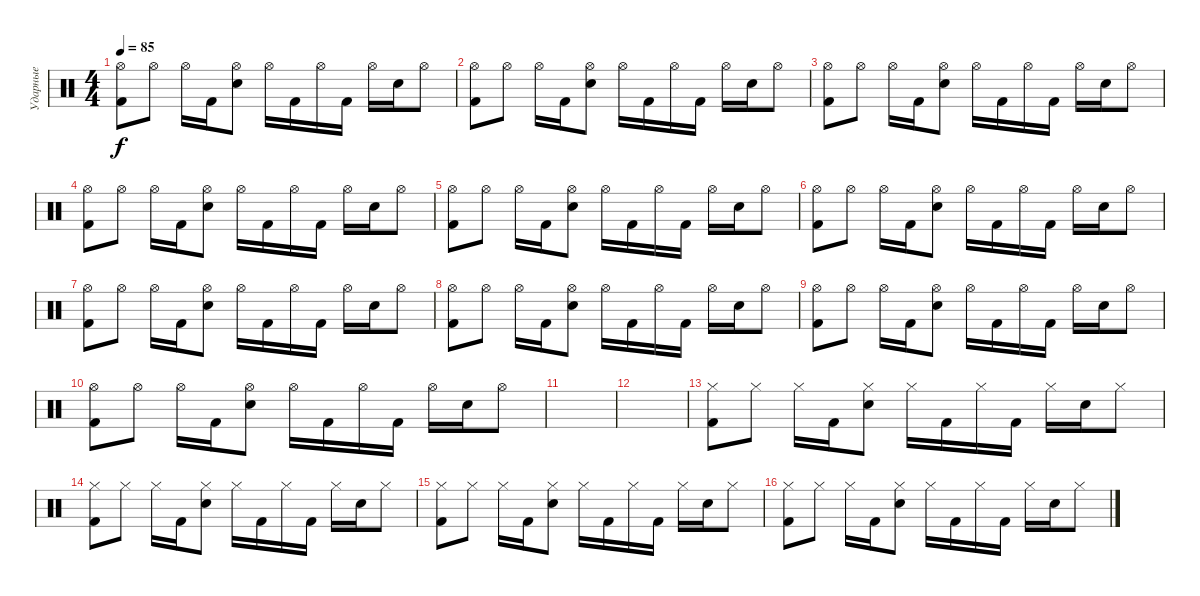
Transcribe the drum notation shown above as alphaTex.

\track ("Ударные" "Ударные") {instrument percussion}
\staff {score}
\articulation defaults
\ts (4 4)
\tempo 85
\clef neutral
\ks c
("Hi-Hat (open)" "Kick (hit) 2").8{dy f} "Hi-Hat (open)".8 "Hi-Hat (open)".16 "Kick (hit) 2".16 ("Hi-Hat (open)" "Electric Snare (hit)").8 "Hi-Hat (open)".16 "Kick (hit) 2".16 "Hi-Hat (open)".16 "Kick (hit) 2".16 "Hi-Hat (open)".16 "Electric Snare (hit)".16 "Hi-Hat (open)".8 |
("Hi-Hat (open)" "Kick (hit) 2").8 "Hi-Hat (open)".8 "Hi-Hat (open)".16 "Kick (hit) 2".16 ("Hi-Hat (open)" "Electric Snare (hit)").8 "Hi-Hat (open)".16 "Kick (hit) 2".16 "Hi-Hat (open)".16 "Kick (hit) 2".16 "Hi-Hat (open)".16 "Electric Snare (hit)".16 "Hi-Hat (open)".8 |
("Hi-Hat (open)" "Kick (hit) 2").8 "Hi-Hat (open)".8 "Hi-Hat (open)".16 "Kick (hit) 2".16 ("Hi-Hat (open)" "Electric Snare (hit)").8 "Hi-Hat (open)".16 "Kick (hit) 2".16 "Hi-Hat (open)".16 "Kick (hit) 2".16 "Hi-Hat (open)".16 "Electric Snare (hit)".16 "Hi-Hat (open)".8 |
("Hi-Hat (open)" "Kick (hit) 2").8 "Hi-Hat (open)".8 "Hi-Hat (open)".16 "Kick (hit) 2".16 ("Hi-Hat (open)" "Electric Snare (hit)").8 "Hi-Hat (open)".16 "Kick (hit) 2".16 "Hi-Hat (open)".16 "Kick (hit) 2".16 "Hi-Hat (open)".16 "Electric Snare (hit)".16 "Hi-Hat (open)".8 |
("Hi-Hat (open)" "Kick (hit) 2").8 "Hi-Hat (open)".8 "Hi-Hat (open)".16 "Kick (hit) 2".16 ("Hi-Hat (open)" "Electric Snare (hit)").8 "Hi-Hat (open)".16 "Kick (hit) 2".16 "Hi-Hat (open)".16 "Kick (hit) 2".16 "Hi-Hat (open)".16 "Electric Snare (hit)".16 "Hi-Hat (open)".8 |
("Hi-Hat (open)" "Kick (hit) 2").8 "Hi-Hat (open)".8 "Hi-Hat (open)".16 "Kick (hit) 2".16 ("Hi-Hat (open)" "Electric Snare (hit)").8 "Hi-Hat (open)".16 "Kick (hit) 2".16 "Hi-Hat (open)".16 "Kick (hit) 2".16 "Hi-Hat (open)".16 "Electric Snare (hit)".16 "Hi-Hat (open)".8 |
("Hi-Hat (open)" "Kick (hit) 2").8 "Hi-Hat (open)".8 "Hi-Hat (open)".16 "Kick (hit) 2".16 ("Hi-Hat (open)" "Electric Snare (hit)").8 "Hi-Hat (open)".16 "Kick (hit) 2".16 "Hi-Hat (open)".16 "Kick (hit) 2".16 "Hi-Hat (open)".16 "Electric Snare (hit)".16 "Hi-Hat (open)".8 |
("Hi-Hat (open)" "Kick (hit) 2").8 "Hi-Hat (open)".8 "Hi-Hat (open)".16 "Kick (hit) 2".16 ("Hi-Hat (open)" "Electric Snare (hit)").8 "Hi-Hat (open)".16 "Kick (hit) 2".16 "Hi-Hat (open)".16 "Kick (hit) 2".16 "Hi-Hat (open)".16 "Electric Snare (hit)".16 "Hi-Hat (open)".8 |
("Hi-Hat (open)" "Kick (hit) 2").8 "Hi-Hat (open)".8 "Hi-Hat (open)".16 "Kick (hit) 2".16 ("Hi-Hat (open)" "Electric Snare (hit)").8 "Hi-Hat (open)".16 "Kick (hit) 2".16 "Hi-Hat (open)".16 "Kick (hit) 2".16 "Hi-Hat (open)".16 "Electric Snare (hit)".16 "Hi-Hat (open)".8 |
("Hi-Hat (open)" "Kick (hit) 2").8 "Hi-Hat (open)".8 "Hi-Hat (open)".16 "Kick (hit) 2".16 ("Hi-Hat (open)" "Electric Snare (hit)").8 "Hi-Hat (open)".16 "Kick (hit) 2".16 "Hi-Hat (open)".16 "Kick (hit) 2".16 "Hi-Hat (open)".16 "Electric Snare (hit)".16 "Hi-Hat (open)".8 |
|
|
("Hi-Hat (closed)" "Kick (hit) 2").8 "Hi-Hat (closed)".8 "Hi-Hat (closed)".16 "Kick (hit) 2".16 ("Hi-Hat (closed)" "Electric Snare (hit)").8 "Hi-Hat (closed)".16 "Kick (hit) 2".16 "Hi-Hat (closed)".16 "Kick (hit) 2".16 "Hi-Hat (closed)".16 "Electric Snare (hit)".16 "Hi-Hat (closed)".8 |
("Hi-Hat (closed)" "Kick (hit) 2").8 "Hi-Hat (closed)".8 "Hi-Hat (closed)".16 "Kick (hit) 2".16 ("Hi-Hat (closed)" "Electric Snare (hit)").8 "Hi-Hat (closed)".16 "Kick (hit) 2".16 "Hi-Hat (closed)".16 "Kick (hit) 2".16 "Hi-Hat (closed)".16 "Electric Snare (hit)".16 "Hi-Hat (closed)".8 |
("Hi-Hat (closed)" "Kick (hit) 2").8 "Hi-Hat (closed)".8 "Hi-Hat (closed)".16 "Kick (hit) 2".16 ("Hi-Hat (closed)" "Electric Snare (hit)").8 "Hi-Hat (closed)".16 "Kick (hit) 2".16 "Hi-Hat (closed)".16 "Kick (hit) 2".16 "Hi-Hat (closed)".16 "Electric Snare (hit)".16 "Hi-Hat (closed)".8 |
("Hi-Hat (closed)" "Kick (hit) 2").8 "Hi-Hat (closed)".8 "Hi-Hat (closed)".16 "Kick (hit) 2".16 ("Hi-Hat (closed)" "Electric Snare (hit)").8 "Hi-Hat (closed)".16 "Kick (hit) 2".16 "Hi-Hat (closed)".16 "Kick (hit) 2".16 "Hi-Hat (closed)".16 "Electric Snare (hit)".16 "Hi-Hat (closed)".8
